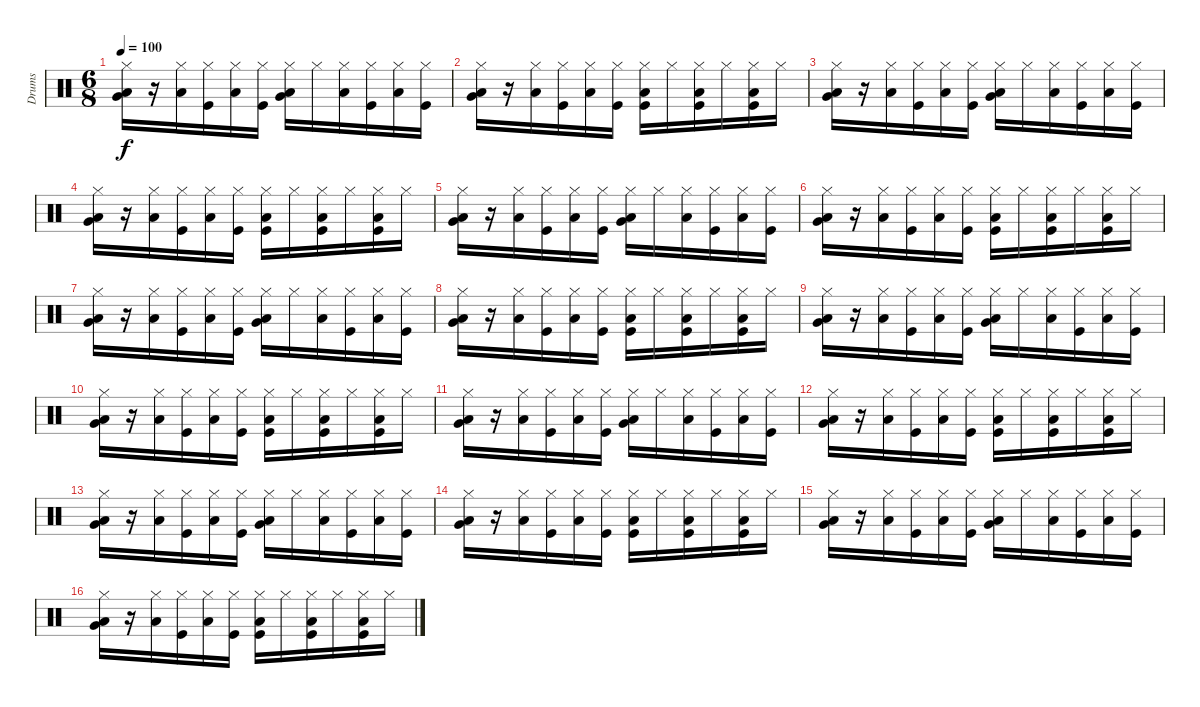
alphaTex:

\track ("Drums" "Drums") {instrument percussion}
\staff {score}
\articulation defaults
\ts (6 8)
\tempo 100
\clef neutral
\ks c
("Hi-Hat (closed)" "Low Floor Tom (hit)" "Very Low Tom (hit)").16{dy f} r.16 ("Hi-Hat (closed)" "Low Floor Tom (hit)").16 ("Hi-Hat (closed)" "Kick (hit)").16 ("Hi-Hat (closed)" "Low Floor Tom (hit)").16 ("Hi-Hat (closed)" "Kick (hit)").16 ("Hi-Hat (closed)" "Low Floor Tom (hit)" "Very Low Tom (hit)").16 "Hi-Hat (closed)".16 ("Hi-Hat (closed)" "Low Floor Tom (hit)").16 ("Hi-Hat (closed)" "Kick (hit)").16 ("Hi-Hat (closed)" "Low Floor Tom (hit)").16 ("Hi-Hat (closed)" "Kick (hit)").16 |
("Hi-Hat (closed)" "Low Floor Tom (hit)" "Very Low Tom (hit)").16 r.16 ("Hi-Hat (closed)" "Low Floor Tom (hit)").16 ("Hi-Hat (closed)" "Kick (hit)").16 ("Hi-Hat (closed)" "Low Floor Tom (hit)").16 ("Hi-Hat (closed)" "Kick (hit)").16 ("Hi-Hat (closed)" "Low Floor Tom (hit)" "Kick (hit)").16 "Hi-Hat (closed)".16 ("Hi-Hat (closed)" "Low Floor Tom (hit)" "Kick (hit)").16 "Hi-Hat (closed)".16 ("Hi-Hat (closed)" "Low Floor Tom (hit)" "Kick (hit)").16 "Hi-Hat (closed)".16 |
("Hi-Hat (closed)" "Low Floor Tom (hit)" "Very Low Tom (hit)").16 r.16 ("Hi-Hat (closed)" "Low Floor Tom (hit)").16 ("Hi-Hat (closed)" "Kick (hit)").16 ("Hi-Hat (closed)" "Low Floor Tom (hit)").16 ("Hi-Hat (closed)" "Kick (hit)").16 ("Hi-Hat (closed)" "Low Floor Tom (hit)" "Very Low Tom (hit)").16 "Hi-Hat (closed)".16 ("Hi-Hat (closed)" "Low Floor Tom (hit)").16 ("Hi-Hat (closed)" "Kick (hit)").16 ("Hi-Hat (closed)" "Low Floor Tom (hit)").16 ("Hi-Hat (closed)" "Kick (hit)").16 |
("Hi-Hat (closed)" "Low Floor Tom (hit)" "Very Low Tom (hit)").16 r.16 ("Hi-Hat (closed)" "Low Floor Tom (hit)").16 ("Hi-Hat (closed)" "Kick (hit)").16 ("Hi-Hat (closed)" "Low Floor Tom (hit)").16 ("Hi-Hat (closed)" "Kick (hit)").16 ("Hi-Hat (closed)" "Low Floor Tom (hit)" "Kick (hit)").16 "Hi-Hat (closed)".16 ("Hi-Hat (closed)" "Low Floor Tom (hit)" "Kick (hit)").16 "Hi-Hat (closed)".16 ("Hi-Hat (closed)" "Low Floor Tom (hit)" "Kick (hit)").16 "Hi-Hat (closed)".16 |
("Hi-Hat (closed)" "Low Floor Tom (hit)" "Very Low Tom (hit)").16 r.16 ("Hi-Hat (closed)" "Low Floor Tom (hit)").16 ("Hi-Hat (closed)" "Kick (hit)").16 ("Hi-Hat (closed)" "Low Floor Tom (hit)").16 ("Hi-Hat (closed)" "Kick (hit)").16 ("Hi-Hat (closed)" "Low Floor Tom (hit)" "Very Low Tom (hit)").16 "Hi-Hat (closed)".16 ("Hi-Hat (closed)" "Low Floor Tom (hit)").16 ("Hi-Hat (closed)" "Kick (hit)").16 ("Hi-Hat (closed)" "Low Floor Tom (hit)").16 ("Hi-Hat (closed)" "Kick (hit)").16 |
("Hi-Hat (closed)" "Low Floor Tom (hit)" "Very Low Tom (hit)").16 r.16 ("Hi-Hat (closed)" "Low Floor Tom (hit)").16 ("Hi-Hat (closed)" "Kick (hit)").16 ("Hi-Hat (closed)" "Low Floor Tom (hit)").16 ("Hi-Hat (closed)" "Kick (hit)").16 ("Hi-Hat (closed)" "Low Floor Tom (hit)" "Kick (hit)").16 "Hi-Hat (closed)".16 ("Hi-Hat (closed)" "Low Floor Tom (hit)" "Kick (hit)").16 "Hi-Hat (closed)".16 ("Hi-Hat (closed)" "Low Floor Tom (hit)" "Kick (hit)").16 "Hi-Hat (closed)".16 |
("Hi-Hat (closed)" "Low Floor Tom (hit)" "Very Low Tom (hit)").16 r.16 ("Hi-Hat (closed)" "Low Floor Tom (hit)").16 ("Hi-Hat (closed)" "Kick (hit)").16 ("Hi-Hat (closed)" "Low Floor Tom (hit)").16 ("Hi-Hat (closed)" "Kick (hit)").16 ("Hi-Hat (closed)" "Low Floor Tom (hit)" "Very Low Tom (hit)").16 "Hi-Hat (closed)".16 ("Hi-Hat (closed)" "Low Floor Tom (hit)").16 ("Hi-Hat (closed)" "Kick (hit)").16 ("Hi-Hat (closed)" "Low Floor Tom (hit)").16 ("Hi-Hat (closed)" "Kick (hit)").16 |
("Hi-Hat (closed)" "Low Floor Tom (hit)" "Very Low Tom (hit)").16 r.16 ("Hi-Hat (closed)" "Low Floor Tom (hit)").16 ("Hi-Hat (closed)" "Kick (hit)").16 ("Hi-Hat (closed)" "Low Floor Tom (hit)").16 ("Hi-Hat (closed)" "Kick (hit)").16 ("Hi-Hat (closed)" "Low Floor Tom (hit)" "Kick (hit)").16 "Hi-Hat (closed)".16 ("Hi-Hat (closed)" "Low Floor Tom (hit)" "Kick (hit)").16 "Hi-Hat (closed)".16 ("Hi-Hat (closed)" "Low Floor Tom (hit)" "Kick (hit)").16 "Hi-Hat (closed)".16 |
("Hi-Hat (closed)" "Low Floor Tom (hit)" "Very Low Tom (hit)").16 r.16 ("Hi-Hat (closed)" "Low Floor Tom (hit)").16 ("Hi-Hat (closed)" "Kick (hit)").16 ("Hi-Hat (closed)" "Low Floor Tom (hit)").16 ("Hi-Hat (closed)" "Kick (hit)").16 ("Hi-Hat (closed)" "Low Floor Tom (hit)" "Very Low Tom (hit)").16 "Hi-Hat (closed)".16 ("Hi-Hat (closed)" "Low Floor Tom (hit)").16 ("Hi-Hat (closed)" "Kick (hit)").16 ("Hi-Hat (closed)" "Low Floor Tom (hit)").16 ("Hi-Hat (closed)" "Kick (hit)").16 |
("Hi-Hat (closed)" "Low Floor Tom (hit)" "Very Low Tom (hit)").16 r.16 ("Hi-Hat (closed)" "Low Floor Tom (hit)").16 ("Hi-Hat (closed)" "Kick (hit)").16 ("Hi-Hat (closed)" "Low Floor Tom (hit)").16 ("Hi-Hat (closed)" "Kick (hit)").16 ("Hi-Hat (closed)" "Low Floor Tom (hit)" "Kick (hit)").16 "Hi-Hat (closed)".16 ("Hi-Hat (closed)" "Low Floor Tom (hit)" "Kick (hit)").16 "Hi-Hat (closed)".16 ("Hi-Hat (closed)" "Low Floor Tom (hit)" "Kick (hit)").16 "Hi-Hat (closed)".16 |
("Hi-Hat (closed)" "Low Floor Tom (hit)" "Very Low Tom (hit)").16 r.16 ("Hi-Hat (closed)" "Low Floor Tom (hit)").16 ("Hi-Hat (closed)" "Kick (hit)").16 ("Hi-Hat (closed)" "Low Floor Tom (hit)").16 ("Hi-Hat (closed)" "Kick (hit)").16 ("Hi-Hat (closed)" "Low Floor Tom (hit)" "Very Low Tom (hit)").16 "Hi-Hat (closed)".16 ("Hi-Hat (closed)" "Low Floor Tom (hit)").16 ("Hi-Hat (closed)" "Kick (hit)").16 ("Hi-Hat (closed)" "Low Floor Tom (hit)").16 ("Hi-Hat (closed)" "Kick (hit)").16 |
("Hi-Hat (closed)" "Low Floor Tom (hit)" "Very Low Tom (hit)").16 r.16 ("Hi-Hat (closed)" "Low Floor Tom (hit)").16 ("Hi-Hat (closed)" "Kick (hit)").16 ("Hi-Hat (closed)" "Low Floor Tom (hit)").16 ("Hi-Hat (closed)" "Kick (hit)").16 ("Hi-Hat (closed)" "Low Floor Tom (hit)" "Kick (hit)").16 "Hi-Hat (closed)".16 ("Hi-Hat (closed)" "Low Floor Tom (hit)" "Kick (hit)").16 "Hi-Hat (closed)".16 ("Hi-Hat (closed)" "Low Floor Tom (hit)" "Kick (hit)").16 "Hi-Hat (closed)".16 |
("Hi-Hat (closed)" "Low Floor Tom (hit)" "Very Low Tom (hit)").16 r.16 ("Hi-Hat (closed)" "Low Floor Tom (hit)").16 ("Hi-Hat (closed)" "Kick (hit)").16 ("Hi-Hat (closed)" "Low Floor Tom (hit)").16 ("Hi-Hat (closed)" "Kick (hit)").16 ("Hi-Hat (closed)" "Low Floor Tom (hit)" "Very Low Tom (hit)").16 "Hi-Hat (closed)".16 ("Hi-Hat (closed)" "Low Floor Tom (hit)").16 ("Hi-Hat (closed)" "Kick (hit)").16 ("Hi-Hat (closed)" "Low Floor Tom (hit)").16 ("Hi-Hat (closed)" "Kick (hit)").16 |
("Hi-Hat (closed)" "Low Floor Tom (hit)" "Very Low Tom (hit)").16 r.16 ("Hi-Hat (closed)" "Low Floor Tom (hit)").16 ("Hi-Hat (closed)" "Kick (hit)").16 ("Hi-Hat (closed)" "Low Floor Tom (hit)").16 ("Hi-Hat (closed)" "Kick (hit)").16 ("Hi-Hat (closed)" "Low Floor Tom (hit)" "Kick (hit)").16 "Hi-Hat (closed)".16 ("Hi-Hat (closed)" "Low Floor Tom (hit)" "Kick (hit)").16 "Hi-Hat (closed)".16 ("Hi-Hat (closed)" "Low Floor Tom (hit)" "Kick (hit)").16 "Hi-Hat (closed)".16 |
("Hi-Hat (closed)" "Low Floor Tom (hit)" "Very Low Tom (hit)").16 r.16 ("Hi-Hat (closed)" "Low Floor Tom (hit)").16 ("Hi-Hat (closed)" "Kick (hit)").16 ("Hi-Hat (closed)" "Low Floor Tom (hit)").16 ("Hi-Hat (closed)" "Kick (hit)").16 ("Hi-Hat (closed)" "Low Floor Tom (hit)" "Very Low Tom (hit)").16 "Hi-Hat (closed)".16 ("Hi-Hat (closed)" "Low Floor Tom (hit)").16 ("Hi-Hat (closed)" "Kick (hit)").16 ("Hi-Hat (closed)" "Low Floor Tom (hit)").16 ("Hi-Hat (closed)" "Kick (hit)").16 |
("Hi-Hat (closed)" "Low Floor Tom (hit)" "Very Low Tom (hit)").16 r.16 ("Hi-Hat (closed)" "Low Floor Tom (hit)").16 ("Hi-Hat (closed)" "Kick (hit)").16 ("Hi-Hat (closed)" "Low Floor Tom (hit)").16 ("Hi-Hat (closed)" "Kick (hit)").16 ("Hi-Hat (closed)" "Low Floor Tom (hit)" "Kick (hit)").16 "Hi-Hat (closed)".16 ("Hi-Hat (closed)" "Low Floor Tom (hit)" "Kick (hit)").16 "Hi-Hat (closed)".16 ("Hi-Hat (closed)" "Low Floor Tom (hit)" "Kick (hit)").16 "Hi-Hat (closed)".16
